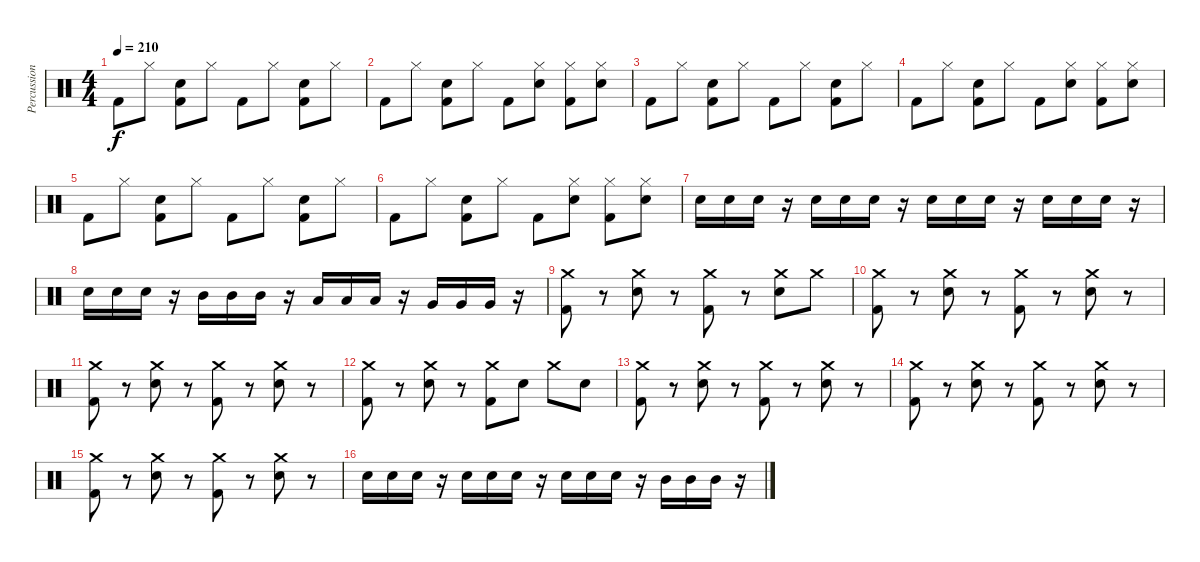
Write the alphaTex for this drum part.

\track ("Percussion" "Percussion") {instrument percussion}
\staff {score}
\articulation defaults
\ts (4 4)
\tempo 210
\clef neutral
\ks c "Kick (hit) 2".8{dy f} "Hi-Hat (closed)".8
("Kick (hit) 2" "Snare (hit) 2").8 "Hi-Hat (closed)".8 "Kick (hit) 2".8 "Hi-Hat (closed)".8 ("Kick (hit) 2" "Snare (hit) 2").8 "Hi-Hat (closed)".8 |
"Kick (hit) 2".8 "Hi-Hat (closed)".8 ("Kick (hit) 2" "Snare (hit) 2").8 "Hi-Hat (closed)".8 "Kick (hit) 2".8 ("Hi-Hat (closed)" "Snare (hit) 2").8 ("Kick (hit) 2" "Hi-Hat (closed)").8 ("Hi-Hat (closed)" "Snare (hit) 2").8 |
"Kick (hit) 2".8 "Hi-Hat (closed)".8 ("Kick (hit) 2" "Snare (hit) 2").8 "Hi-Hat (closed)".8 "Kick (hit) 2".8 "Hi-Hat (closed)".8 ("Kick (hit) 2" "Snare (hit) 2").8 "Hi-Hat (closed)".8 |
"Kick (hit) 2".8 "Hi-Hat (closed)".8 ("Kick (hit) 2" "Snare (hit) 2").8 "Hi-Hat (closed)".8 "Kick (hit) 2".8 ("Hi-Hat (closed)" "Snare (hit) 2").8 ("Kick (hit) 2" "Hi-Hat (closed)").8 ("Hi-Hat (closed)" "Snare (hit) 2").8 |
"Kick (hit) 2".8 "Hi-Hat (closed)".8 ("Kick (hit) 2" "Snare (hit) 2").8 "Hi-Hat (closed)".8 "Kick (hit) 2".8 "Hi-Hat (closed)".8 ("Kick (hit) 2" "Snare (hit) 2").8 "Hi-Hat (closed)".8 |
"Kick (hit) 2".8 "Hi-Hat (closed)".8 ("Kick (hit) 2" "Snare (hit) 2").8 "Hi-Hat (closed)".8 "Kick (hit) 2".8 ("Hi-Hat (closed)" "Snare (hit) 2").8 ("Kick (hit) 2" "Hi-Hat (closed)").8 ("Hi-Hat (closed)" "Snare (hit) 2").8 |
"Snare (hit) 2".16 "Snare (hit) 2".16 "Snare (hit) 2".16 r.16 "Snare (hit) 2".16 "Snare (hit) 2".16 "Snare (hit) 2".16 r.16 "Snare (hit) 2".16 "Snare (hit) 2".16 "Snare (hit) 2".16 r.16 "Snare (hit) 2".16 "Snare (hit) 2".16 "Snare (hit) 2".16 r.16 |
"Snare (hit) 2".16 "Snare (hit) 2".16 "Snare (hit) 2".16 r.16 "Mid Tom (hit)".16 "Mid Tom (hit)".16 "Mid Tom (hit)".16 r.16 "Low Tom (hit)".16 "Low Tom (hit)".16 "Low Tom (hit)".16 r.16 "Very Low Tom (hit)".16 "Very Low Tom (hit)".16 "Very Low Tom (hit)".16 r.16 |
("Kick (hit) 2" "Crash medium (hit)").8 r.8 ("Snare (hit) 2" "Crash medium (hit)").8 r.8 ("Kick (hit) 2" "Crash medium (hit)").8 r.8 ("Snare (hit) 2" "Crash medium (hit)").8 "Crash medium (hit)".8 |
("Kick (hit) 2" "Crash medium (hit)").8 r.8 ("Snare (hit) 2" "Crash medium (hit)").8 r.8 ("Kick (hit) 2" "Crash medium (hit)").8 r.8 ("Snare (hit) 2" "Crash medium (hit)").8 r.8 |
("Kick (hit) 2" "Crash medium (hit)").8 r.8 ("Snare (hit) 2" "Crash medium (hit)").8 r.8 ("Kick (hit) 2" "Crash medium (hit)").8 r.8 ("Snare (hit) 2" "Crash medium (hit)").8 r.8 |
("Kick (hit) 2" "Crash medium (hit)").8 r.8 ("Snare (hit) 2" "Crash medium (hit)").8 r.8 ("Kick (hit) 2" "Crash medium (hit)").8 "Snare (hit) 2".8 "Crash medium (hit)".8 "Snare (hit) 2".8 |
("Kick (hit) 2" "Crash medium (hit)").8 r.8 ("Snare (hit) 2" "Crash medium (hit)").8 r.8 ("Kick (hit) 2" "Crash medium (hit)").8 r.8 ("Snare (hit) 2" "Crash medium (hit)").8 r.8 |
("Kick (hit) 2" "Crash medium (hit)").8 r.8 ("Snare (hit) 2" "Crash medium (hit)").8 r.8 ("Kick (hit) 2" "Crash medium (hit)").8 r.8 ("Snare (hit) 2" "Crash medium (hit)").8 r.8 |
("Kick (hit) 2" "Crash medium (hit)").8 r.8 ("Snare (hit) 2" "Crash medium (hit)").8 r.8 ("Kick (hit) 2" "Crash medium (hit)").8 r.8 ("Snare (hit) 2" "Crash medium (hit)").8 r.8 |
"Snare (hit) 2".16 "Snare (hit) 2".16 "Snare (hit) 2".16 r.16 "Snare (hit) 2".16 "Snare (hit) 2".16 "Snare (hit) 2".16 r.16 "Snare (hit) 2".16 "Snare (hit) 2".16 "Snare (hit) 2".16 r.16 "Mid Tom (hit)".16 "Mid Tom (hit)".16 "Mid Tom (hit)".16 r.16
